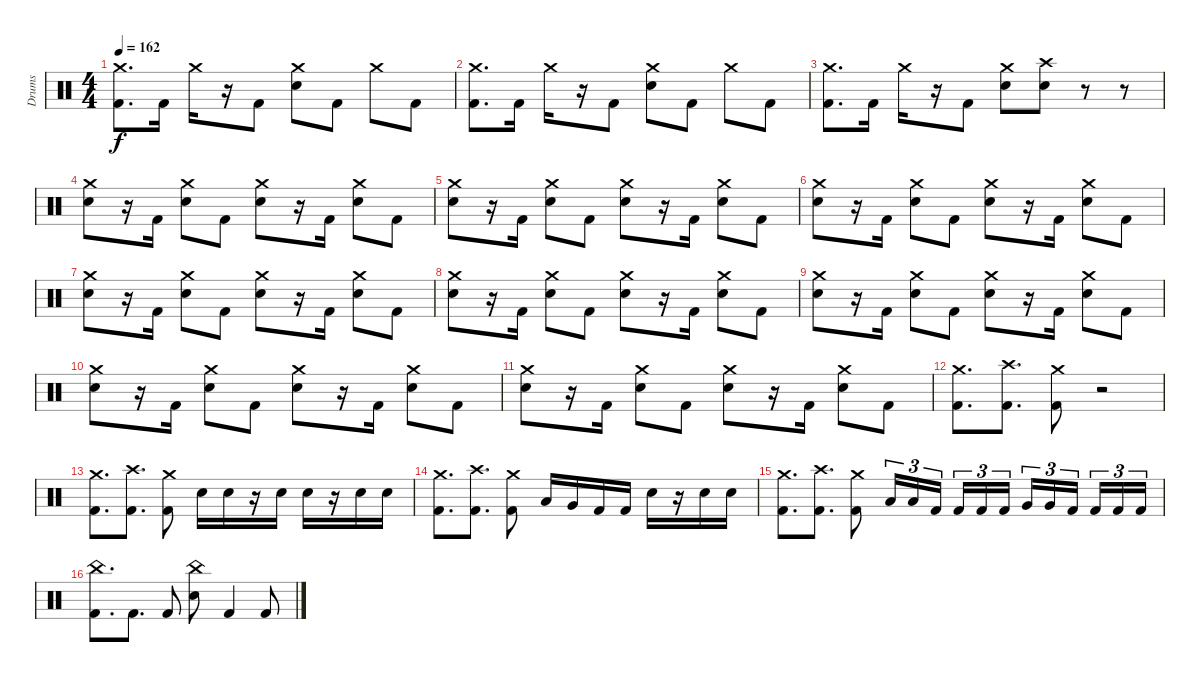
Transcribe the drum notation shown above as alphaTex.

\track ("Drums" "Drums") {instrument percussion}
\staff {score}
\articulation defaults
\ts (4 4)
\tempo 162
\clef neutral
\ks c
("Crash medium (hit)" "Kick (hit) 2").8{d dy f} "Kick (hit) 2".16 "Crash medium (hit)".16 r.16 "Kick (hit) 2".8 ("Crash medium (hit)" "Electric Snare (hit)").8 "Kick (hit) 2".8 "Crash medium (hit)".8 "Kick (hit) 2".8 |
("Crash medium (hit)" "Kick (hit) 2").8{d} "Kick (hit) 2".16 "Crash medium (hit)".16 r.16 "Kick (hit) 2".8 ("Crash medium (hit)" "Electric Snare (hit)").8 "Kick (hit) 2".8 "Crash medium (hit)".8 "Kick (hit) 2".8 |
("Crash medium (hit)" "Kick (hit) 2").8{d} "Kick (hit) 2".16 "Crash medium (hit)".16 r.16 "Kick (hit) 2".8 ("Crash medium (hit)" "Electric Snare (hit)").8 ("Crash high (hit)" "Electric Snare (hit)").8 r.8 r.8 |
("Crash medium (hit)" "Electric Snare (hit)").8 r.16 "Kick (hit) 2".16 ("Crash medium (hit)" "Electric Snare (hit)").8 "Kick (hit) 2".8 ("Crash medium (hit)" "Electric Snare (hit)").8 r.16 "Kick (hit) 2".16 ("Crash medium (hit)" "Electric Snare (hit)").8 "Kick (hit) 2".8 |
("Crash medium (hit)" "Electric Snare (hit)").8 r.16 "Kick (hit) 2".16 ("Crash medium (hit)" "Electric Snare (hit)").8 "Kick (hit) 2".8 ("Crash medium (hit)" "Electric Snare (hit)").8 r.16 "Kick (hit) 2".16 ("Crash medium (hit)" "Electric Snare (hit)").8 "Kick (hit) 2".8 |
("Crash medium (hit)" "Electric Snare (hit)").8 r.16 "Kick (hit) 2".16 ("Crash medium (hit)" "Electric Snare (hit)").8 "Kick (hit) 2".8 ("Crash medium (hit)" "Electric Snare (hit)").8 r.16 "Kick (hit) 2".16 ("Crash medium (hit)" "Electric Snare (hit)").8 "Kick (hit) 2".8 |
("Crash medium (hit)" "Electric Snare (hit)").8 r.16 "Kick (hit) 2".16 ("Crash medium (hit)" "Electric Snare (hit)").8 "Kick (hit) 2".8 ("Crash medium (hit)" "Electric Snare (hit)").8 r.16 "Kick (hit) 2".16 ("Crash medium (hit)" "Electric Snare (hit)").8 "Kick (hit) 2".8 |
("Crash medium (hit)" "Electric Snare (hit)").8 r.16 "Kick (hit) 2".16 ("Crash medium (hit)" "Electric Snare (hit)").8 "Kick (hit) 2".8 ("Crash medium (hit)" "Electric Snare (hit)").8 r.16 "Kick (hit) 2".16 ("Crash medium (hit)" "Electric Snare (hit)").8 "Kick (hit) 2".8 |
("Crash medium (hit)" "Electric Snare (hit)").8 r.16 "Kick (hit) 2".16 ("Crash medium (hit)" "Electric Snare (hit)").8 "Kick (hit) 2".8 ("Crash medium (hit)" "Electric Snare (hit)").8 r.16 "Kick (hit) 2".16 ("Crash medium (hit)" "Electric Snare (hit)").8 "Kick (hit) 2".8 |
("Crash medium (hit)" "Electric Snare (hit)").8 r.16 "Kick (hit) 2".16 ("Crash medium (hit)" "Electric Snare (hit)").8 "Kick (hit) 2".8 ("Crash medium (hit)" "Electric Snare (hit)").8 r.16 "Kick (hit) 2".16 ("Crash medium (hit)" "Electric Snare (hit)").8 "Kick (hit) 2".8 |
("Crash medium (hit)" "Electric Snare (hit)").8 r.16 "Kick (hit) 2".16 ("Crash medium (hit)" "Electric Snare (hit)").8 "Kick (hit) 2".8 ("Crash medium (hit)" "Electric Snare (hit)").8 r.16 "Kick (hit) 2".16 ("Crash medium (hit)" "Electric Snare (hit)").8 "Kick (hit) 2".8 |
("Crash medium (hit)" "Kick (hit) 2").8{d} ("Crash high (hit)" "Kick (hit) 2").8{d} ("Crash medium (hit)" "Kick (hit) 2").8 r.2 |
("Crash medium (hit)" "Kick (hit) 2").8{d} ("Crash high (hit)" "Kick (hit) 2").8{d} ("Crash medium (hit)" "Kick (hit) 2").8 "Electric Snare (hit)".16 "Electric Snare (hit)".16 r.16 "Electric Snare (hit)".16 "Electric Snare (hit)".16 r.16 "Electric Snare (hit)".16 "Electric Snare (hit)".16 |
("Crash medium (hit)" "Kick (hit) 2").8{d} ("Crash high (hit)" "Kick (hit) 2").8{d} ("Crash medium (hit)" "Kick (hit) 2").8 "Low Tom (hit)".16 "Very Low Tom (hit)".16 "Kick (hit) 2".16 "Kick (hit) 2".16 "Electric Snare (hit)".16 r.16 "Electric Snare (hit)".16 "Electric Snare (hit)".16 |
("Crash medium (hit)" "Kick (hit) 2").8{d} ("Crash high (hit)" "Kick (hit) 2").8{d} ("Crash medium (hit)" "Kick (hit) 2").8 "Low Tom (hit)".16{tu (3 2)} "Low Tom (hit)".16{tu (3 2)} "Kick (hit) 2".16{tu (3 2)} "Kick (hit) 2".16{tu (3 2)} "Kick (hit) 2".16{tu (3 2)} "Kick (hit) 2".16{tu (3 2)} "Very Low Tom (hit)".16{tu (3 2)} "Very Low Tom (hit)".16{tu (3 2)} "Kick (hit) 2".16{tu (3 2)} "Kick (hit) 2".16{tu (3 2)} "Kick (hit) 2".16{tu (3 2)} "Kick (hit) 2".16{tu (3 2)} |
("China (hit)" "Kick (hit) 2").8{d} "Kick (hit) 2".8{d} "Kick (hit) 2".8 ("China (hit)" "Electric Snare (hit)").8 "Kick (hit) 2".4 "Kick (hit) 2".8
